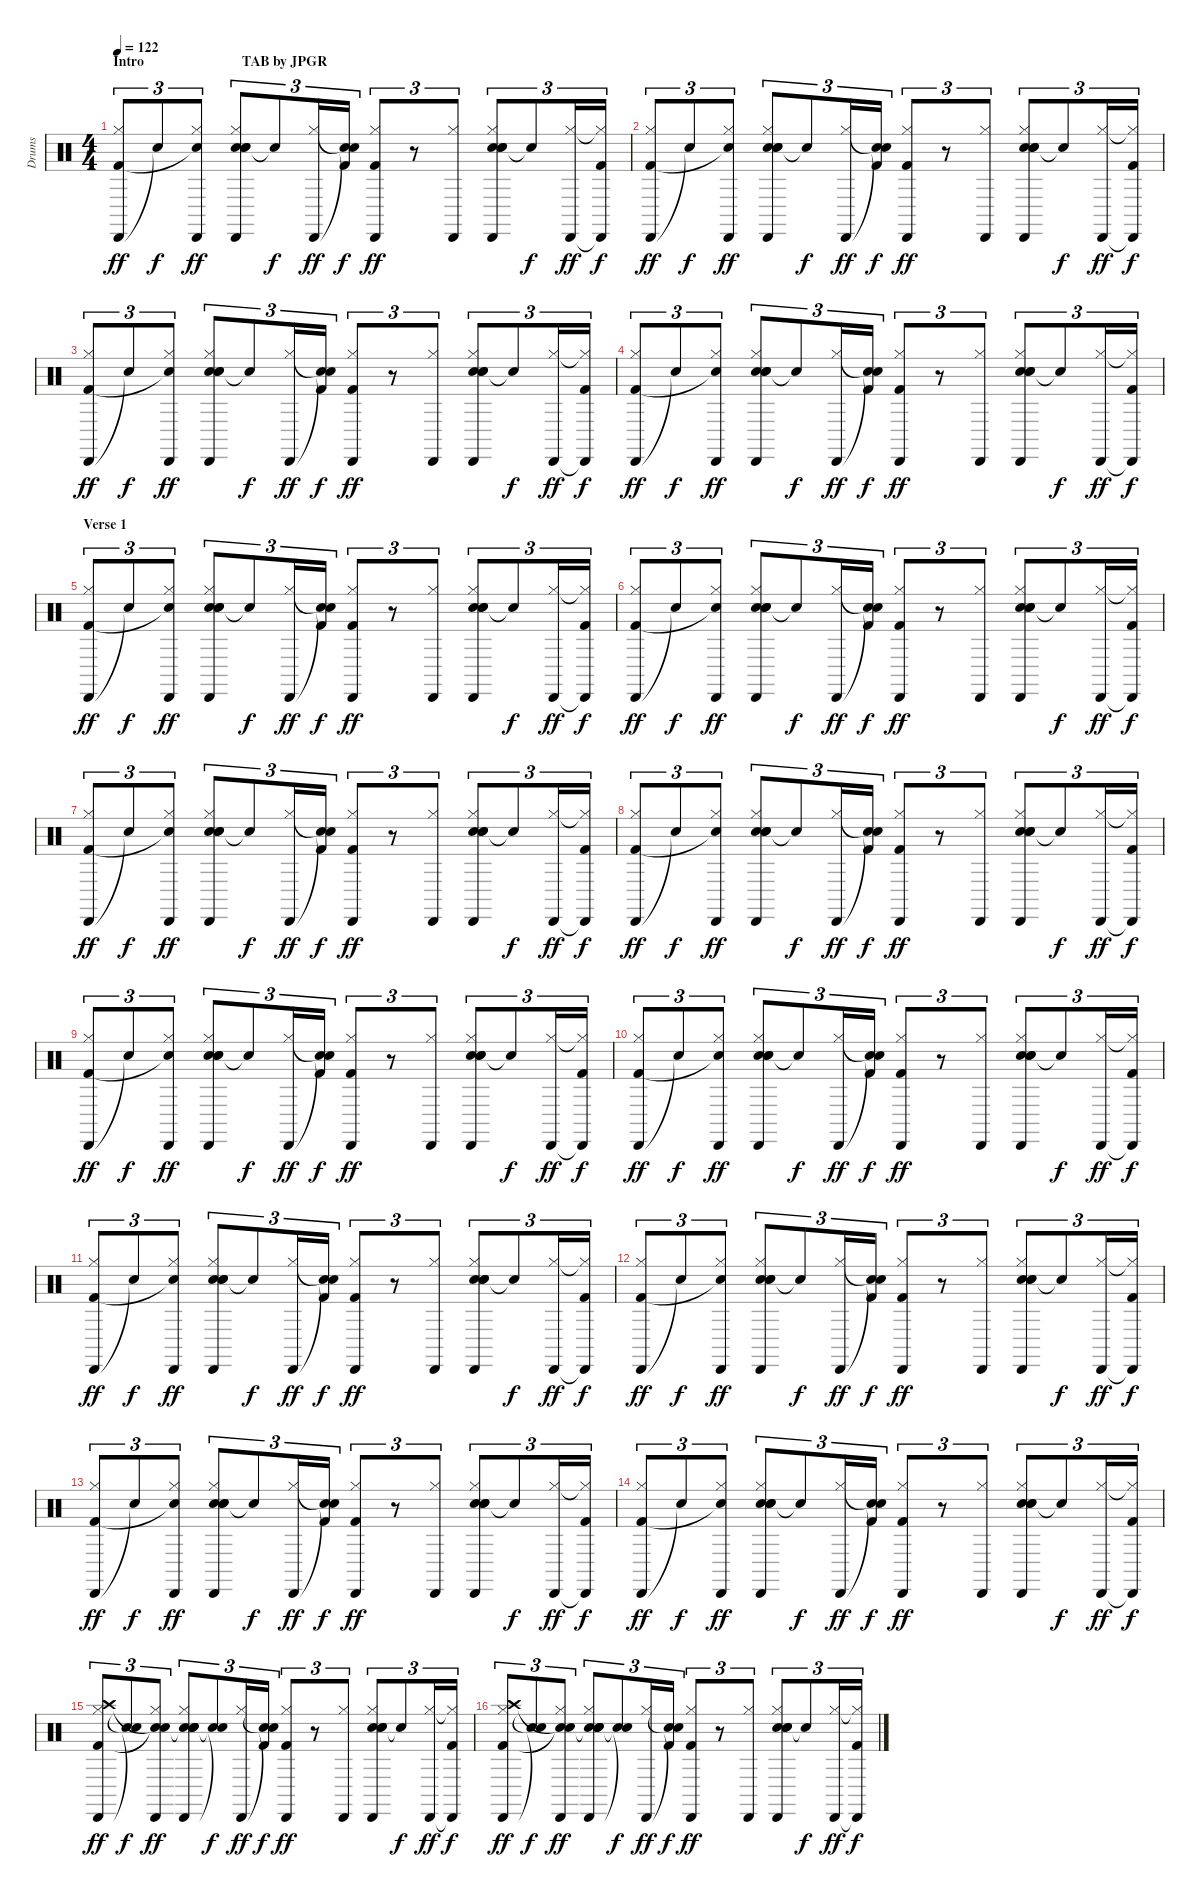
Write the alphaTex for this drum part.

\track ("Drums" "Drums") {instrument percussion}
\staff {score}
\articulation defaults
\ts (4 4)
\section ("" "Intro                            TAB by JPGR")
\tempo 122
\clef neutral
\ks c
("Cabasa (hit)" "Hi-Hat (closed)" "Kick (hit) 2").8{tu (3 2) dy ff} "Snare (hit)"{t}.8{tu (3 2) dy f} ("Cabasa (hit)" "Hi-Hat (closed)" "Snare (hit)"{t}).8{tu (3 2) dy ff} ("Hand Clap (hit)" "Cabasa (hit)" "Hi-Hat (closed)" "Snare (hit) 2" "Hand Clap (hit)").8{tu (3 2)} "Snare (hit)"{t}.8{tu (3 2) dy f} ("Cabasa (hit)" "Hi-Hat (closed)").16{tu (3 2) dy ff} ("Snare (hit)"{t} "Snare (hit)"{t} "Kick (hit) 2").16{tu (3 2) dy f} ("Cabasa (hit)" "Hi-Hat (closed)" "Kick (hit) 2").8{tu (3 2) dy ff} r.8{tu (3 2)} ("Cabasa (hit)" "Hi-Hat (closed)").8{tu (3 2)} ("Hand Clap (hit)" "Cabasa (hit)" "Hi-Hat (closed)" "Snare (hit) 2" "Hand Clap (hit)").8{tu (3 2)} "Snare (hit)"{t}.8{tu (3 2) dy f} ("Cabasa (hit)" "Hi-Hat (closed)").16{tu (3 2) dy ff} ("Cabasa (hit)"{t} "Hi-Hat (closed)"{t} "Kick (hit) 2").16{tu (3 2) dy f} |
("Cabasa (hit)" "Hi-Hat (closed)" "Kick (hit) 2").8{tu (3 2) dy ff} "Snare (hit)"{t}.8{tu (3 2) dy f} ("Cabasa (hit)" "Hi-Hat (closed)" "Snare (hit)"{t}).8{tu (3 2) dy ff} ("Hand Clap (hit)" "Cabasa (hit)" "Hi-Hat (closed)" "Snare (hit) 2" "Hand Clap (hit)").8{tu (3 2)} "Snare (hit)"{t}.8{tu (3 2) dy f} ("Cabasa (hit)" "Hi-Hat (closed)").16{tu (3 2) dy ff} ("Snare (hit)"{t} "Snare (hit)"{t} "Kick (hit) 2").16{tu (3 2) dy f} ("Cabasa (hit)" "Hi-Hat (closed)" "Kick (hit) 2").8{tu (3 2) dy ff} r.8{tu (3 2)} ("Cabasa (hit)" "Hi-Hat (closed)").8{tu (3 2)} ("Hand Clap (hit)" "Cabasa (hit)" "Hi-Hat (closed)" "Snare (hit) 2" "Hand Clap (hit)").8{tu (3 2)} "Snare (hit)"{t}.8{tu (3 2) dy f} ("Cabasa (hit)" "Hi-Hat (closed)").16{tu (3 2) dy ff} ("Cabasa (hit)"{t} "Hi-Hat (closed)"{t} "Kick (hit) 2").16{tu (3 2) dy f} |
("Cabasa (hit)" "Hi-Hat (closed)" "Kick (hit) 2").8{tu (3 2) dy ff} "Snare (hit)"{t}.8{tu (3 2) dy f} ("Cabasa (hit)" "Hi-Hat (closed)" "Snare (hit)"{t}).8{tu (3 2) dy ff} ("Hand Clap (hit)" "Cabasa (hit)" "Hi-Hat (closed)" "Snare (hit) 2" "Hand Clap (hit)").8{tu (3 2)} "Snare (hit)"{t}.8{tu (3 2) dy f} ("Cabasa (hit)" "Hi-Hat (closed)").16{tu (3 2) dy ff} ("Snare (hit)"{t} "Snare (hit)"{t} "Kick (hit) 2").16{tu (3 2) dy f} ("Cabasa (hit)" "Hi-Hat (closed)" "Kick (hit) 2").8{tu (3 2) dy ff} r.8{tu (3 2)} ("Cabasa (hit)" "Hi-Hat (closed)").8{tu (3 2)} ("Hand Clap (hit)" "Cabasa (hit)" "Hi-Hat (closed)" "Snare (hit) 2" "Hand Clap (hit)").8{tu (3 2)} "Snare (hit)"{t}.8{tu (3 2) dy f} ("Cabasa (hit)" "Hi-Hat (closed)").16{tu (3 2) dy ff} ("Cabasa (hit)"{t} "Hi-Hat (closed)"{t} "Kick (hit) 2").16{tu (3 2) dy f} |
("Cabasa (hit)" "Hi-Hat (closed)" "Kick (hit) 2").8{tu (3 2) dy ff} "Snare (hit)"{t}.8{tu (3 2) dy f} ("Cabasa (hit)" "Hi-Hat (closed)" "Snare (hit)"{t}).8{tu (3 2) dy ff} ("Hand Clap (hit)" "Cabasa (hit)" "Hi-Hat (closed)" "Snare (hit) 2" "Hand Clap (hit)").8{tu (3 2)} "Snare (hit)"{t}.8{tu (3 2) dy f} ("Cabasa (hit)" "Hi-Hat (closed)").16{tu (3 2) dy ff} ("Snare (hit)"{t} "Snare (hit)"{t} "Kick (hit) 2").16{tu (3 2) dy f} ("Cabasa (hit)" "Hi-Hat (closed)" "Kick (hit) 2").8{tu (3 2) dy ff} r.8{tu (3 2)} ("Cabasa (hit)" "Hi-Hat (closed)").8{tu (3 2)} ("Hand Clap (hit)" "Cabasa (hit)" "Hi-Hat (closed)" "Snare (hit) 2" "Hand Clap (hit)").8{tu (3 2)} "Snare (hit)"{t}.8{tu (3 2) dy f} ("Cabasa (hit)" "Hi-Hat (closed)").16{tu (3 2) dy ff} ("Cabasa (hit)"{t} "Hi-Hat (closed)"{t} "Kick (hit) 2").16{tu (3 2) dy f} |
\section ("" "Verse 1")
("Cabasa (hit)" "Hi-Hat (closed)" "Kick (hit) 2").8{tu (3 2) dy ff} "Snare (hit)"{t}.8{tu (3 2) dy f} ("Cabasa (hit)" "Hi-Hat (closed)" "Snare (hit)"{t}).8{tu (3 2) dy ff} ("Hand Clap (hit)" "Cabasa (hit)" "Hi-Hat (closed)" "Snare (hit) 2" "Hand Clap (hit)").8{tu (3 2)} "Snare (hit)"{t}.8{tu (3 2) dy f} ("Cabasa (hit)" "Hi-Hat (closed)").16{tu (3 2) dy ff} ("Snare (hit)"{t} "Snare (hit)"{t} "Kick (hit) 2").16{tu (3 2) dy f} ("Cabasa (hit)" "Hi-Hat (closed)" "Kick (hit) 2").8{tu (3 2) dy ff} r.8{tu (3 2)} ("Cabasa (hit)" "Hi-Hat (closed)").8{tu (3 2)} ("Hand Clap (hit)" "Cabasa (hit)" "Hi-Hat (closed)" "Snare (hit) 2" "Hand Clap (hit)").8{tu (3 2)} "Snare (hit)"{t}.8{tu (3 2) dy f} ("Cabasa (hit)" "Hi-Hat (closed)").16{tu (3 2) dy ff} ("Cabasa (hit)"{t} "Hi-Hat (closed)"{t} "Kick (hit) 2").16{tu (3 2) dy f} |
("Cabasa (hit)" "Hi-Hat (closed)" "Kick (hit) 2").8{tu (3 2) dy ff} "Snare (hit)"{t}.8{tu (3 2) dy f} ("Cabasa (hit)" "Hi-Hat (closed)" "Snare (hit)"{t}).8{tu (3 2) dy ff} ("Hand Clap (hit)" "Cabasa (hit)" "Hi-Hat (closed)" "Snare (hit) 2" "Hand Clap (hit)").8{tu (3 2)} "Snare (hit)"{t}.8{tu (3 2) dy f} ("Cabasa (hit)" "Hi-Hat (closed)").16{tu (3 2) dy ff} ("Snare (hit)"{t} "Snare (hit)"{t} "Kick (hit) 2").16{tu (3 2) dy f} ("Cabasa (hit)" "Hi-Hat (closed)" "Kick (hit) 2").8{tu (3 2) dy ff} r.8{tu (3 2)} ("Cabasa (hit)" "Hi-Hat (closed)").8{tu (3 2)} ("Hand Clap (hit)" "Cabasa (hit)" "Hi-Hat (closed)" "Snare (hit) 2" "Hand Clap (hit)").8{tu (3 2)} "Snare (hit)"{t}.8{tu (3 2) dy f} ("Cabasa (hit)" "Hi-Hat (closed)").16{tu (3 2) dy ff} ("Cabasa (hit)"{t} "Hi-Hat (closed)"{t} "Kick (hit) 2").16{tu (3 2) dy f} |
("Cabasa (hit)" "Hi-Hat (closed)" "Kick (hit) 2").8{tu (3 2) dy ff} "Snare (hit)"{t}.8{tu (3 2) dy f} ("Cabasa (hit)" "Hi-Hat (closed)" "Snare (hit)"{t}).8{tu (3 2) dy ff} ("Hand Clap (hit)" "Cabasa (hit)" "Hi-Hat (closed)" "Snare (hit) 2" "Hand Clap (hit)").8{tu (3 2)} "Snare (hit)"{t}.8{tu (3 2) dy f} ("Cabasa (hit)" "Hi-Hat (closed)").16{tu (3 2) dy ff} ("Snare (hit)"{t} "Snare (hit)"{t} "Kick (hit) 2").16{tu (3 2) dy f} ("Cabasa (hit)" "Hi-Hat (closed)" "Kick (hit) 2").8{tu (3 2) dy ff} r.8{tu (3 2)} ("Cabasa (hit)" "Hi-Hat (closed)").8{tu (3 2)} ("Hand Clap (hit)" "Cabasa (hit)" "Hi-Hat (closed)" "Snare (hit) 2" "Hand Clap (hit)").8{tu (3 2)} "Snare (hit)"{t}.8{tu (3 2) dy f} ("Cabasa (hit)" "Hi-Hat (closed)").16{tu (3 2) dy ff} ("Cabasa (hit)"{t} "Hi-Hat (closed)"{t} "Kick (hit) 2").16{tu (3 2) dy f} |
("Cabasa (hit)" "Hi-Hat (closed)" "Kick (hit) 2").8{tu (3 2) dy ff} "Snare (hit)"{t}.8{tu (3 2) dy f} ("Cabasa (hit)" "Hi-Hat (closed)" "Snare (hit)"{t}).8{tu (3 2) dy ff} ("Hand Clap (hit)" "Cabasa (hit)" "Hi-Hat (closed)" "Snare (hit) 2" "Hand Clap (hit)").8{tu (3 2)} "Snare (hit)"{t}.8{tu (3 2) dy f} ("Cabasa (hit)" "Hi-Hat (closed)").16{tu (3 2) dy ff} ("Snare (hit)"{t} "Snare (hit)"{t} "Kick (hit) 2").16{tu (3 2) dy f} ("Cabasa (hit)" "Hi-Hat (closed)" "Kick (hit) 2").8{tu (3 2) dy ff} r.8{tu (3 2)} ("Cabasa (hit)" "Hi-Hat (closed)").8{tu (3 2)} ("Hand Clap (hit)" "Cabasa (hit)" "Hi-Hat (closed)" "Snare (hit) 2" "Hand Clap (hit)").8{tu (3 2)} "Snare (hit)"{t}.8{tu (3 2) dy f} ("Cabasa (hit)" "Hi-Hat (closed)").16{tu (3 2) dy ff} ("Cabasa (hit)"{t} "Hi-Hat (closed)"{t} "Kick (hit) 2").16{tu (3 2) dy f} |
("Cabasa (hit)" "Hi-Hat (closed)" "Kick (hit) 2").8{tu (3 2) dy ff} "Snare (hit)"{t}.8{tu (3 2) dy f} ("Cabasa (hit)" "Hi-Hat (closed)" "Snare (hit)"{t}).8{tu (3 2) dy ff} ("Hand Clap (hit)" "Cabasa (hit)" "Hi-Hat (closed)" "Snare (hit) 2" "Hand Clap (hit)").8{tu (3 2)} "Snare (hit)"{t}.8{tu (3 2) dy f} ("Cabasa (hit)" "Hi-Hat (closed)").16{tu (3 2) dy ff} ("Snare (hit)"{t} "Snare (hit)"{t} "Kick (hit) 2").16{tu (3 2) dy f} ("Cabasa (hit)" "Hi-Hat (closed)" "Kick (hit) 2").8{tu (3 2) dy ff} r.8{tu (3 2)} ("Cabasa (hit)" "Hi-Hat (closed)").8{tu (3 2)} ("Hand Clap (hit)" "Cabasa (hit)" "Hi-Hat (closed)" "Snare (hit) 2" "Hand Clap (hit)").8{tu (3 2)} "Snare (hit)"{t}.8{tu (3 2) dy f} ("Cabasa (hit)" "Hi-Hat (closed)").16{tu (3 2) dy ff} ("Cabasa (hit)"{t} "Hi-Hat (closed)"{t} "Kick (hit) 2").16{tu (3 2) dy f} |
("Cabasa (hit)" "Hi-Hat (closed)" "Kick (hit) 2").8{tu (3 2) dy ff} "Snare (hit)"{t}.8{tu (3 2) dy f} ("Cabasa (hit)" "Hi-Hat (closed)" "Snare (hit)"{t}).8{tu (3 2) dy ff} ("Hand Clap (hit)" "Cabasa (hit)" "Hi-Hat (closed)" "Snare (hit) 2" "Hand Clap (hit)").8{tu (3 2)} "Snare (hit)"{t}.8{tu (3 2) dy f} ("Cabasa (hit)" "Hi-Hat (closed)").16{tu (3 2) dy ff} ("Snare (hit)"{t} "Snare (hit)"{t} "Kick (hit) 2").16{tu (3 2) dy f} ("Cabasa (hit)" "Hi-Hat (closed)" "Kick (hit) 2").8{tu (3 2) dy ff} r.8{tu (3 2)} ("Cabasa (hit)" "Hi-Hat (closed)").8{tu (3 2)} ("Hand Clap (hit)" "Cabasa (hit)" "Hi-Hat (closed)" "Snare (hit) 2" "Hand Clap (hit)").8{tu (3 2)} "Snare (hit)"{t}.8{tu (3 2) dy f} ("Cabasa (hit)" "Hi-Hat (closed)").16{tu (3 2) dy ff} ("Cabasa (hit)"{t} "Hi-Hat (closed)"{t} "Kick (hit) 2").16{tu (3 2) dy f} |
("Cabasa (hit)" "Hi-Hat (closed)" "Kick (hit) 2").8{tu (3 2) dy ff} "Snare (hit)"{t}.8{tu (3 2) dy f} ("Cabasa (hit)" "Hi-Hat (closed)" "Snare (hit)"{t}).8{tu (3 2) dy ff} ("Hand Clap (hit)" "Cabasa (hit)" "Hi-Hat (closed)" "Snare (hit) 2" "Hand Clap (hit)").8{tu (3 2)} "Snare (hit)"{t}.8{tu (3 2) dy f} ("Cabasa (hit)" "Hi-Hat (closed)").16{tu (3 2) dy ff} ("Snare (hit)"{t} "Snare (hit)"{t} "Kick (hit) 2").16{tu (3 2) dy f} ("Cabasa (hit)" "Hi-Hat (closed)" "Kick (hit) 2").8{tu (3 2) dy ff} r.8{tu (3 2)} ("Cabasa (hit)" "Hi-Hat (closed)").8{tu (3 2)} ("Hand Clap (hit)" "Cabasa (hit)" "Hi-Hat (closed)" "Snare (hit) 2" "Hand Clap (hit)").8{tu (3 2)} "Snare (hit)"{t}.8{tu (3 2) dy f} ("Cabasa (hit)" "Hi-Hat (closed)").16{tu (3 2) dy ff} ("Cabasa (hit)"{t} "Hi-Hat (closed)"{t} "Kick (hit) 2").16{tu (3 2) dy f} |
("Cabasa (hit)" "Hi-Hat (closed)" "Kick (hit) 2").8{tu (3 2) dy ff} "Snare (hit)"{t}.8{tu (3 2) dy f} ("Cabasa (hit)" "Hi-Hat (closed)" "Snare (hit)"{t}).8{tu (3 2) dy ff} ("Hand Clap (hit)" "Cabasa (hit)" "Hi-Hat (closed)" "Snare (hit) 2" "Hand Clap (hit)").8{tu (3 2)} "Snare (hit)"{t}.8{tu (3 2) dy f} ("Cabasa (hit)" "Hi-Hat (closed)").16{tu (3 2) dy ff} ("Snare (hit)"{t} "Snare (hit)"{t} "Kick (hit) 2").16{tu (3 2) dy f} ("Cabasa (hit)" "Hi-Hat (closed)" "Kick (hit) 2").8{tu (3 2) dy ff} r.8{tu (3 2)} ("Cabasa (hit)" "Hi-Hat (closed)").8{tu (3 2)} ("Hand Clap (hit)" "Cabasa (hit)" "Hi-Hat (closed)" "Snare (hit) 2" "Hand Clap (hit)").8{tu (3 2)} "Snare (hit)"{t}.8{tu (3 2) dy f} ("Cabasa (hit)" "Hi-Hat (closed)").16{tu (3 2) dy ff} ("Cabasa (hit)"{t} "Hi-Hat (closed)"{t} "Kick (hit) 2").16{tu (3 2) dy f} |
("Cabasa (hit)" "Hi-Hat (closed)" "Kick (hit) 2").8{tu (3 2) dy ff} "Snare (hit)"{t}.8{tu (3 2) dy f} ("Cabasa (hit)" "Hi-Hat (closed)" "Snare (hit)"{t}).8{tu (3 2) dy ff} ("Hand Clap (hit)" "Cabasa (hit)" "Hi-Hat (closed)" "Snare (hit) 2" "Hand Clap (hit)").8{tu (3 2)} "Snare (hit)"{t}.8{tu (3 2) dy f} ("Cabasa (hit)" "Hi-Hat (closed)").16{tu (3 2) dy ff} ("Snare (hit)"{t} "Snare (hit)"{t} "Kick (hit) 2").16{tu (3 2) dy f} ("Cabasa (hit)" "Hi-Hat (closed)" "Kick (hit) 2").8{tu (3 2) dy ff} r.8{tu (3 2)} ("Cabasa (hit)" "Hi-Hat (closed)").8{tu (3 2)} ("Hand Clap (hit)" "Cabasa (hit)" "Hi-Hat (closed)" "Snare (hit) 2" "Hand Clap (hit)").8{tu (3 2)} "Snare (hit)"{t}.8{tu (3 2) dy f} ("Cabasa (hit)" "Hi-Hat (closed)").16{tu (3 2) dy ff} ("Cabasa (hit)"{t} "Hi-Hat (closed)"{t} "Kick (hit) 2").16{tu (3 2) dy f} |
("Cabasa (hit)" "Hi-Hat (closed)" "Kick (hit) 2").8{tu (3 2) dy ff} "Snare (hit)"{t}.8{tu (3 2) dy f} ("Cabasa (hit)" "Hi-Hat (closed)" "Snare (hit)"{t}).8{tu (3 2) dy ff} ("Hand Clap (hit)" "Cabasa (hit)" "Hi-Hat (closed)" "Snare (hit) 2" "Hand Clap (hit)").8{tu (3 2)} "Snare (hit)"{t}.8{tu (3 2) dy f} ("Cabasa (hit)" "Hi-Hat (closed)").16{tu (3 2) dy ff} ("Snare (hit)"{t} "Snare (hit)"{t} "Kick (hit) 2").16{tu (3 2) dy f} ("Cabasa (hit)" "Hi-Hat (closed)" "Kick (hit) 2").8{tu (3 2) dy ff} r.8{tu (3 2)} ("Cabasa (hit)" "Hi-Hat (closed)").8{tu (3 2)} ("Hand Clap (hit)" "Cabasa (hit)" "Hi-Hat (closed)" "Snare (hit) 2" "Hand Clap (hit)").8{tu (3 2)} "Snare (hit)"{t}.8{tu (3 2) dy f} ("Cabasa (hit)" "Hi-Hat (closed)").16{tu (3 2) dy ff} ("Cabasa (hit)"{t} "Hi-Hat (closed)"{t} "Kick (hit) 2").16{tu (3 2) dy f} |
("Cabasa (hit)" "Hi-Hat (closed)" "Crash high (hit)" "Kick (hit) 2").8{tu (3 2) dy ff} ("Snare (hit)"{t} "Snare (hit)"{t}).8{tu (3 2) dy f} ("Cabasa (hit)" "Hi-Hat (closed)" "Snare (hit)"{t} "Snare (hit)"{t}).8{tu (3 2) dy ff} ("Hand Clap (hit)" "Cabasa (hit)" "Hi-Hat (closed)" "Snare (hit)"{t} "Snare (hit) 2" "Hand Clap (hit)").8{tu (3 2)} ("Snare (hit)"{t} "Snare (hit)"{t}).8{tu (3 2) dy f} ("Cabasa (hit)" "Hi-Hat (closed)").16{tu (3 2) dy ff} ("Snare (hit)"{t} "Snare (hit)"{t} "Kick (hit) 2").16{tu (3 2) dy f} ("Cabasa (hit)" "Hi-Hat (closed)" "Kick (hit) 2").8{tu (3 2) dy ff} r.8{tu (3 2)} ("Cabasa (hit)" "Hi-Hat (closed)").8{tu (3 2)} ("Hand Clap (hit)" "Cabasa (hit)" "Hi-Hat (closed)" "Snare (hit) 2" "Hand Clap (hit)").8{tu (3 2)} "Snare (hit)"{t}.8{tu (3 2) dy f} ("Cabasa (hit)" "Hi-Hat (closed)").16{tu (3 2) dy ff} ("Cabasa (hit)"{t} "Hi-Hat (closed)"{t} "Kick (hit) 2").16{tu (3 2) dy f} |
("Cabasa (hit)" "Hi-Hat (closed)" "Crash high (hit)" "Kick (hit) 2").8{tu (3 2) dy ff} ("Snare (hit)"{t} "Snare (hit)"{t}).8{tu (3 2) dy f} ("Cabasa (hit)" "Hi-Hat (closed)" "Snare (hit)"{t} "Snare (hit)"{t}).8{tu (3 2) dy ff} ("Hand Clap (hit)" "Cabasa (hit)" "Hi-Hat (closed)" "Snare (hit)"{t} "Snare (hit) 2" "Hand Clap (hit)").8{tu (3 2)} ("Snare (hit)"{t} "Snare (hit)"{t}).8{tu (3 2) dy f} ("Cabasa (hit)" "Hi-Hat (closed)").16{tu (3 2) dy ff} ("Snare (hit)"{t} "Snare (hit)"{t} "Kick (hit) 2").16{tu (3 2) dy f} ("Cabasa (hit)" "Hi-Hat (closed)" "Kick (hit) 2").8{tu (3 2) dy ff} r.8{tu (3 2)} ("Cabasa (hit)" "Hi-Hat (closed)").8{tu (3 2)} ("Hand Clap (hit)" "Cabasa (hit)" "Hi-Hat (closed)" "Snare (hit) 2" "Hand Clap (hit)").8{tu (3 2)} "Snare (hit)"{t}.8{tu (3 2) dy f} ("Cabasa (hit)" "Hi-Hat (closed)").16{tu (3 2) dy ff} ("Cabasa (hit)"{t} "Hi-Hat (closed)"{t} "Kick (hit) 2").16{tu (3 2) dy f}
